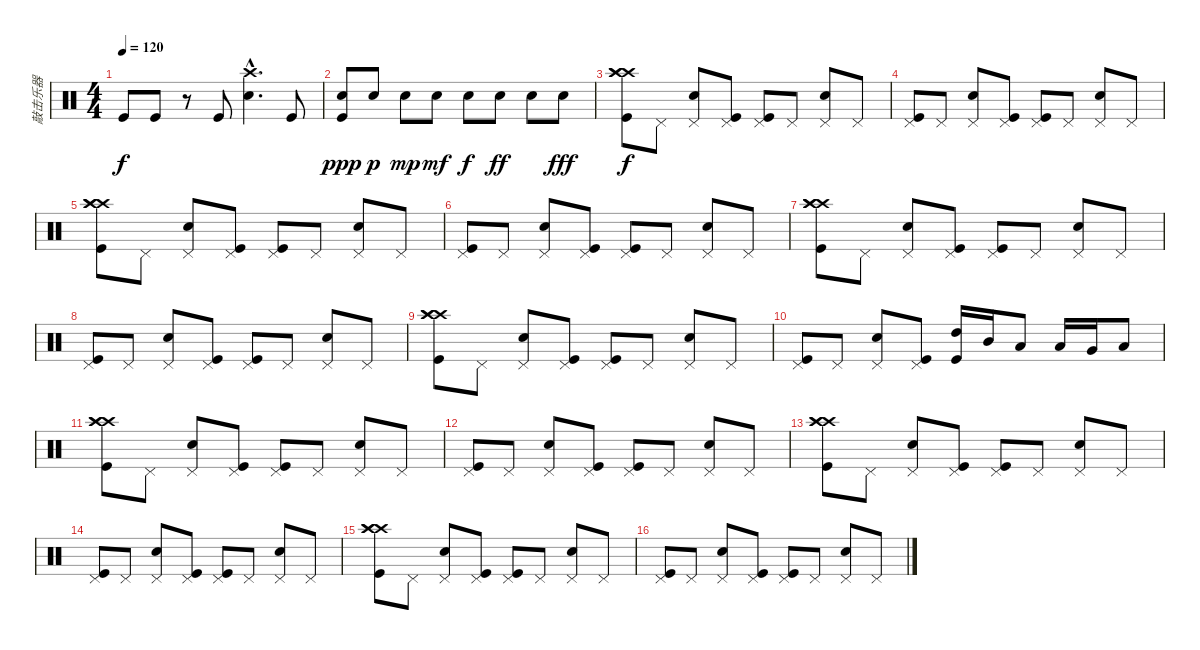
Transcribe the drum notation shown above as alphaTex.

\track ("敲击乐器" "敲击乐器") {instrument percussion}
\staff {score}
\articulation defaults
\ts (4 4)
\tempo 120
\clef neutral
\ks c "Kick (hit)".8{dy f} "Kick (hit)".8
r.8 "Kick (hit)".8 ("Crash high (hit)"{hac} "Metronome (bell)"{hac}).4{d} "Kick (hit)".8 |
("Metronome (bell)" "Kick (hit)").8{dy ppp} "Metronome (bell)".8{dy p} "Metronome (bell)".8{dy mp} "Metronome (bell)".8{dy mf} "Metronome (bell)".8{dy f} "Metronome (bell)".8{dy ff} "Metronome (bell)".8 "Metronome (bell)".8{dy fff} |
("Crash high (hit)" "Crash high (hit)" "Crash high (hit)" "Kick (hit)").8{dy f} "Pedal Hi-Hat (hit)".8 ("Pedal Hi-Hat (hit)" "Metronome (bell)").8 ("Pedal Hi-Hat (hit)" "Kick (hit)").8 ("Pedal Hi-Hat (hit)" "Kick (hit)").8 "Pedal Hi-Hat (hit)".8 ("Pedal Hi-Hat (hit)" "Metronome (bell)").8 "Pedal Hi-Hat (hit)".8 |
("Pedal Hi-Hat (hit)" "Kick (hit)").8 "Pedal Hi-Hat (hit)".8 ("Pedal Hi-Hat (hit)" "Metronome (bell)").8 ("Pedal Hi-Hat (hit)" "Kick (hit)").8 ("Pedal Hi-Hat (hit)" "Kick (hit)").8 "Pedal Hi-Hat (hit)".8 ("Pedal Hi-Hat (hit)" "Metronome (bell)").8 "Pedal Hi-Hat (hit)".8 |
("Crash high (hit)" "Crash high (hit)" "Crash high (hit)" "Kick (hit)").8 "Pedal Hi-Hat (hit)".8 ("Pedal Hi-Hat (hit)" "Metronome (bell)").8 ("Pedal Hi-Hat (hit)" "Kick (hit)").8 ("Pedal Hi-Hat (hit)" "Kick (hit)").8 "Pedal Hi-Hat (hit)".8 ("Pedal Hi-Hat (hit)" "Metronome (bell)").8 "Pedal Hi-Hat (hit)".8 |
("Pedal Hi-Hat (hit)" "Kick (hit)").8 "Pedal Hi-Hat (hit)".8 ("Pedal Hi-Hat (hit)" "Metronome (bell)").8 ("Pedal Hi-Hat (hit)" "Kick (hit)").8 ("Pedal Hi-Hat (hit)" "Kick (hit)").8 "Pedal Hi-Hat (hit)".8 ("Pedal Hi-Hat (hit)" "Metronome (bell)").8 "Pedal Hi-Hat (hit)".8 |
("Crash high (hit)" "Crash high (hit)" "Crash high (hit)" "Kick (hit)").8 "Pedal Hi-Hat (hit)".8 ("Pedal Hi-Hat (hit)" "Metronome (bell)").8 ("Pedal Hi-Hat (hit)" "Kick (hit)").8 ("Pedal Hi-Hat (hit)" "Kick (hit)").8 "Pedal Hi-Hat (hit)".8 ("Pedal Hi-Hat (hit)" "Metronome (bell)").8 "Pedal Hi-Hat (hit)".8 |
("Pedal Hi-Hat (hit)" "Kick (hit)").8 "Pedal Hi-Hat (hit)".8 ("Pedal Hi-Hat (hit)" "Metronome (bell)").8 ("Pedal Hi-Hat (hit)" "Kick (hit)").8 ("Pedal Hi-Hat (hit)" "Kick (hit)").8 "Pedal Hi-Hat (hit)".8 ("Pedal Hi-Hat (hit)" "Metronome (bell)").8 "Pedal Hi-Hat (hit)".8 |
("Crash high (hit)" "Crash high (hit)" "Crash high (hit)" "Kick (hit)").8 "Pedal Hi-Hat (hit)".8 ("Pedal Hi-Hat (hit)" "Metronome (bell)").8 ("Pedal Hi-Hat (hit)" "Kick (hit)").8 ("Pedal Hi-Hat (hit)" "Kick (hit)").8 "Pedal Hi-Hat (hit)".8 ("Pedal Hi-Hat (hit)" "Metronome (bell)").8 "Pedal Hi-Hat (hit)".8 |
("Pedal Hi-Hat (hit)" "Kick (hit)").8 "Pedal Hi-Hat (hit)".8 ("Pedal Hi-Hat (hit)" "Metronome (bell)").8 ("Pedal Hi-Hat (hit)" "Kick (hit)").8 ("High Tom (hit)" "Kick (hit)").16 "Mid Tom (hit)".16 "Low Tom (hit)".8 "Low Tom (hit)".16 "Very Low Tom (hit)".16 "Low Floor Tom (hit)".8 |
("Crash high (hit)" "Crash high (hit)" "Crash high (hit)" "Kick (hit)").8 "Pedal Hi-Hat (hit)".8 ("Pedal Hi-Hat (hit)" "Metronome (bell)").8 ("Pedal Hi-Hat (hit)" "Kick (hit)").8 ("Pedal Hi-Hat (hit)" "Kick (hit)").8 "Pedal Hi-Hat (hit)".8 ("Pedal Hi-Hat (hit)" "Metronome (bell)").8 "Pedal Hi-Hat (hit)".8 |
("Pedal Hi-Hat (hit)" "Kick (hit)").8 "Pedal Hi-Hat (hit)".8 ("Pedal Hi-Hat (hit)" "Metronome (bell)").8 ("Pedal Hi-Hat (hit)" "Kick (hit)").8 ("Pedal Hi-Hat (hit)" "Kick (hit)").8 "Pedal Hi-Hat (hit)".8 ("Pedal Hi-Hat (hit)" "Metronome (bell)").8 "Pedal Hi-Hat (hit)".8 |
("Crash high (hit)" "Crash high (hit)" "Crash high (hit)" "Kick (hit)").8 "Pedal Hi-Hat (hit)".8 ("Pedal Hi-Hat (hit)" "Metronome (bell)").8 ("Pedal Hi-Hat (hit)" "Kick (hit)").8 ("Pedal Hi-Hat (hit)" "Kick (hit)").8 "Pedal Hi-Hat (hit)".8 ("Pedal Hi-Hat (hit)" "Metronome (bell)").8 "Pedal Hi-Hat (hit)".8 |
("Pedal Hi-Hat (hit)" "Kick (hit)").8 "Pedal Hi-Hat (hit)".8 ("Pedal Hi-Hat (hit)" "Metronome (bell)").8 ("Pedal Hi-Hat (hit)" "Kick (hit)").8 ("Pedal Hi-Hat (hit)" "Kick (hit)").8 "Pedal Hi-Hat (hit)".8 ("Pedal Hi-Hat (hit)" "Metronome (bell)").8 "Pedal Hi-Hat (hit)".8 |
("Crash high (hit)" "Crash high (hit)" "Crash high (hit)" "Kick (hit)").8 "Pedal Hi-Hat (hit)".8 ("Pedal Hi-Hat (hit)" "Metronome (bell)").8 ("Pedal Hi-Hat (hit)" "Kick (hit)").8 ("Pedal Hi-Hat (hit)" "Kick (hit)").8 "Pedal Hi-Hat (hit)".8 ("Pedal Hi-Hat (hit)" "Metronome (bell)").8 "Pedal Hi-Hat (hit)".8 |
("Pedal Hi-Hat (hit)" "Kick (hit)").8 "Pedal Hi-Hat (hit)".8 ("Pedal Hi-Hat (hit)" "Metronome (bell)").8 ("Pedal Hi-Hat (hit)" "Kick (hit)").8 ("Pedal Hi-Hat (hit)" "Kick (hit)").8 "Pedal Hi-Hat (hit)".8 ("Pedal Hi-Hat (hit)" "Metronome (bell)").8 "Pedal Hi-Hat (hit)".8
